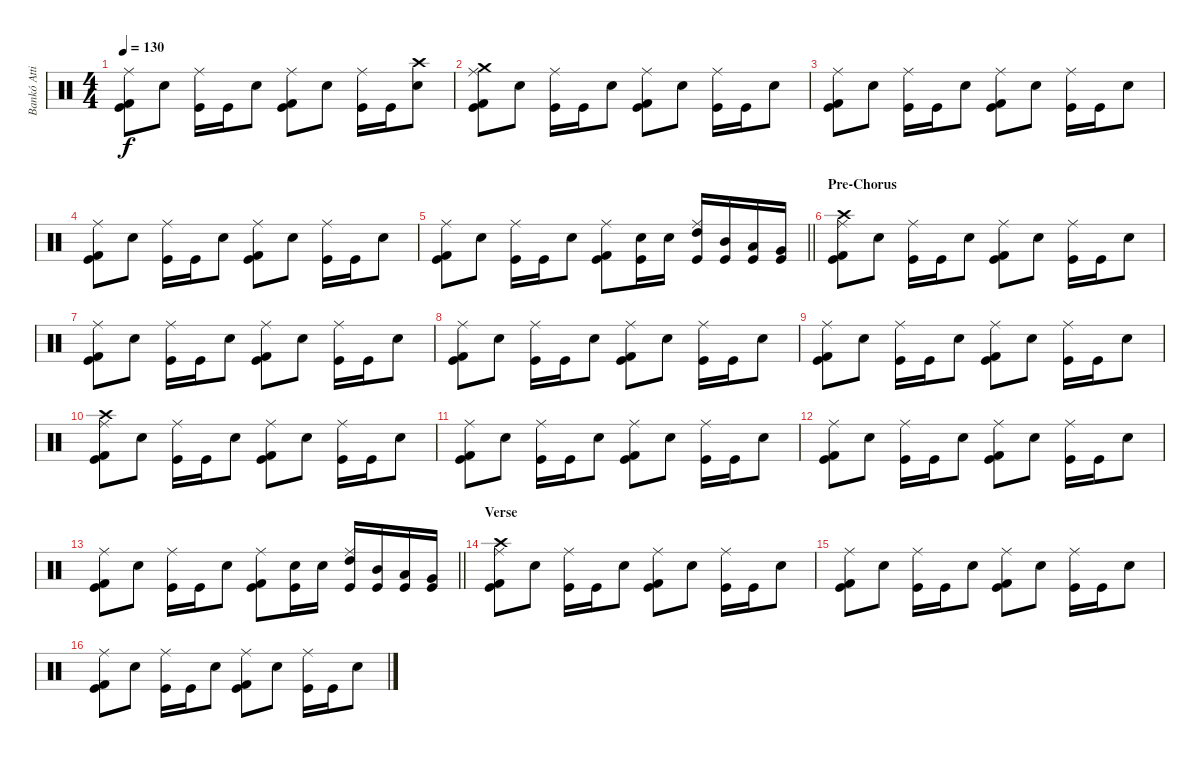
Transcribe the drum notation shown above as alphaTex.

\track ("Bankó Attila-Drum" "Bankó Atti") {instrument percussion}
\staff {score}
\articulation defaults
\ts (4 4)
\tempo 130
\clef neutral
\ks c
("Kick (hit) 2" "Kick (hit)" "Ride (middle)").8{dy f} "Snare (hit) 2".8 ("Kick (hit)" "Ride (middle)").16 "Kick (hit)".16 "Snare (hit) 2".8 ("Kick (hit) 2" "Kick (hit)" "Ride (middle)").8 "Snare (hit) 2".8 ("Kick (hit)" "Ride (middle)").16 "Kick (hit)".16 ("Snare (hit) 2" "Crash high (hit)").8 |
("Kick (hit) 2" "Kick (hit)" "Crash medium (hit)" "Ride (middle)").8 "Snare (hit) 2".8 ("Kick (hit)" "Ride (middle)").16 "Kick (hit)".16 "Snare (hit) 2".8 ("Kick (hit) 2" "Kick (hit)" "Ride (middle)").8 "Snare (hit) 2".8 ("Kick (hit)" "Ride (middle)").16 "Kick (hit)".16 "Snare (hit) 2".8 |
("Kick (hit) 2" "Kick (hit)" "Ride (middle)").8 "Snare (hit) 2".8 ("Kick (hit)" "Ride (middle)").16 "Kick (hit)".16 "Snare (hit) 2".8 ("Kick (hit) 2" "Kick (hit)" "Ride (middle)").8 "Snare (hit) 2".8 ("Kick (hit)" "Ride (middle)").16 "Kick (hit)".16 "Snare (hit) 2".8 |
("Kick (hit) 2" "Kick (hit)" "Ride (middle)").8 "Snare (hit) 2".8 ("Kick (hit)" "Ride (middle)").16 "Kick (hit)".16 "Snare (hit) 2".8 ("Kick (hit) 2" "Kick (hit)" "Ride (middle)").8 "Snare (hit) 2".8 ("Kick (hit)" "Ride (middle)").16 "Kick (hit)".16 "Snare (hit) 2".8 |
\barLineRight lightlight
("Kick (hit) 2" "Kick (hit)" "Ride (middle)").8 "Snare (hit) 2".8 ("Kick (hit)" "Ride (middle)").16 "Kick (hit)".16 "Snare (hit) 2".8 ("Kick (hit) 2" "Kick (hit)" "Ride (middle)").8 ("Snare (hit) 2" "Kick (hit)").16 "Snare (hit) 2".16 ("High Tom (hit)" "Kick (hit)" "Ride (middle)").16 ("Mid Tom (hit)" "Kick (hit)").16 ("Low Tom (hit)" "Kick (hit)").16 ("Very Low Tom (hit)" "Kick (hit)").16 |
\section ("" "Pre-Chorus")
("Kick (hit) 2" "Kick (hit)" "Crash high (hit)" "Ride (middle)").8 "Snare (hit) 2".8 ("Kick (hit)" "Ride (middle)").16 "Kick (hit)".16 "Snare (hit) 2".8 ("Kick (hit) 2" "Kick (hit)" "Ride (middle)").8 "Snare (hit) 2".8 ("Kick (hit)" "Ride (middle)").16 "Kick (hit)".16 "Snare (hit) 2".8 |
("Kick (hit) 2" "Kick (hit)" "Ride (middle)").8 "Snare (hit) 2".8 ("Kick (hit)" "Ride (middle)").16 "Kick (hit)".16 "Snare (hit) 2".8 ("Kick (hit) 2" "Kick (hit)" "Ride (middle)").8 "Snare (hit) 2".8 ("Kick (hit)" "Ride (middle)").16 "Kick (hit)".16 "Snare (hit) 2".8 |
("Kick (hit) 2" "Kick (hit)" "Ride (middle)").8 "Snare (hit) 2".8 ("Kick (hit)" "Ride (middle)").16 "Kick (hit)".16 "Snare (hit) 2".8 ("Kick (hit) 2" "Kick (hit)" "Ride (middle)").8 "Snare (hit) 2".8 ("Kick (hit)" "Ride (middle)").16 "Kick (hit)".16 "Snare (hit) 2".8 |
("Kick (hit) 2" "Kick (hit)" "Ride (middle)").8 "Snare (hit) 2".8 ("Kick (hit)" "Ride (middle)").16 "Kick (hit)".16 "Snare (hit) 2".8 ("Kick (hit) 2" "Kick (hit)" "Ride (middle)").8 "Snare (hit) 2".8 ("Kick (hit)" "Ride (middle)").16 "Kick (hit)".16 "Snare (hit) 2".8 |
("Kick (hit) 2" "Kick (hit)" "Crash high (hit)" "Ride (middle)").8 "Snare (hit) 2".8 ("Kick (hit)" "Ride (middle)").16 "Kick (hit)".16 "Snare (hit) 2".8 ("Kick (hit) 2" "Kick (hit)" "Ride (middle)").8 "Snare (hit) 2".8 ("Kick (hit)" "Ride (middle)").16 "Kick (hit)".16 "Snare (hit) 2".8 |
("Kick (hit) 2" "Kick (hit)" "Ride (middle)").8 "Snare (hit) 2".8 ("Kick (hit)" "Ride (middle)").16 "Kick (hit)".16 "Snare (hit) 2".8 ("Kick (hit) 2" "Kick (hit)" "Ride (middle)").8 "Snare (hit) 2".8 ("Kick (hit)" "Ride (middle)").16 "Kick (hit)".16 "Snare (hit) 2".8 |
("Kick (hit) 2" "Kick (hit)" "Ride (middle)").8 "Snare (hit) 2".8 ("Kick (hit)" "Ride (middle)").16 "Kick (hit)".16 "Snare (hit) 2".8 ("Kick (hit) 2" "Kick (hit)" "Ride (middle)").8 "Snare (hit) 2".8 ("Kick (hit)" "Ride (middle)").16 "Kick (hit)".16 "Snare (hit) 2".8 |
\barLineRight lightlight
("Kick (hit) 2" "Kick (hit)" "Ride (middle)").8 "Snare (hit) 2".8 ("Kick (hit)" "Ride (middle)").16 "Kick (hit)".16 "Snare (hit) 2".8 ("Kick (hit) 2" "Kick (hit)" "Ride (middle)").8 ("Snare (hit) 2" "Kick (hit)").16 "Snare (hit) 2".16 ("High Tom (hit)" "Kick (hit)" "Ride (middle)").16 ("Mid Tom (hit)" "Kick (hit)").16 ("Low Tom (hit)" "Kick (hit)").16 ("Very Low Tom (hit)" "Kick (hit)").16 |
\section ("" "Verse ")
("Kick (hit) 2" "Kick (hit)" "Crash high (hit)" "Ride (middle)").8 "Snare (hit) 2".8 ("Kick (hit)" "Ride (middle)").16 "Kick (hit)".16 "Snare (hit) 2".8 ("Kick (hit) 2" "Kick (hit)" "Ride (middle)").8 "Snare (hit) 2".8 ("Kick (hit)" "Ride (middle)").16 "Kick (hit)".16 "Snare (hit) 2".8 |
("Kick (hit) 2" "Kick (hit)" "Ride (middle)").8 "Snare (hit) 2".8 ("Kick (hit)" "Ride (middle)").16 "Kick (hit)".16 "Snare (hit) 2".8 ("Kick (hit) 2" "Kick (hit)" "Ride (middle)").8 "Snare (hit) 2".8 ("Kick (hit)" "Ride (middle)").16 "Kick (hit)".16 "Snare (hit) 2".8 |
("Kick (hit) 2" "Kick (hit)" "Ride (middle)").8 "Snare (hit) 2".8 ("Kick (hit)" "Ride (middle)").16 "Kick (hit)".16 "Snare (hit) 2".8 ("Kick (hit) 2" "Kick (hit)" "Ride (middle)").8 "Snare (hit) 2".8 ("Kick (hit)" "Ride (middle)").16 "Kick (hit)".16 "Snare (hit) 2".8
